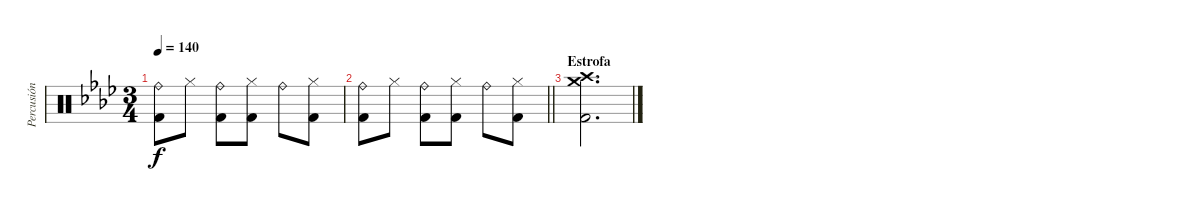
\track ("Percusión" "Percusión") {instrument percussion}
\staff {score}
\articulation defaults
\ts (3 4)
\tempo 140
\clef neutral
\ks fminor
("Ride (bell)" "Kick (hit) 2").8{dy f} "Hi-Hat (closed)".8 ("Ride (bell)" "Kick (hit) 2").8 ("Hi-Hat (closed)" "Kick (hit) 2").8 "Ride (bell)".8 ("Hi-Hat (closed)" "Kick (hit) 2").8 |
\barLineRight lightlight
("Ride (bell)" "Kick (hit) 2").8 "Hi-Hat (closed)".8 ("Ride (bell)" "Kick (hit) 2").8 ("Hi-Hat (closed)" "Kick (hit) 2").8 "Ride (bell)".8 ("Hi-Hat (closed)" "Kick (hit) 2").8 |
\section ("" "Estrofa")
("Crash medium (hit)" "Crash high (hit)" "Kick (hit) 2").2{d}
